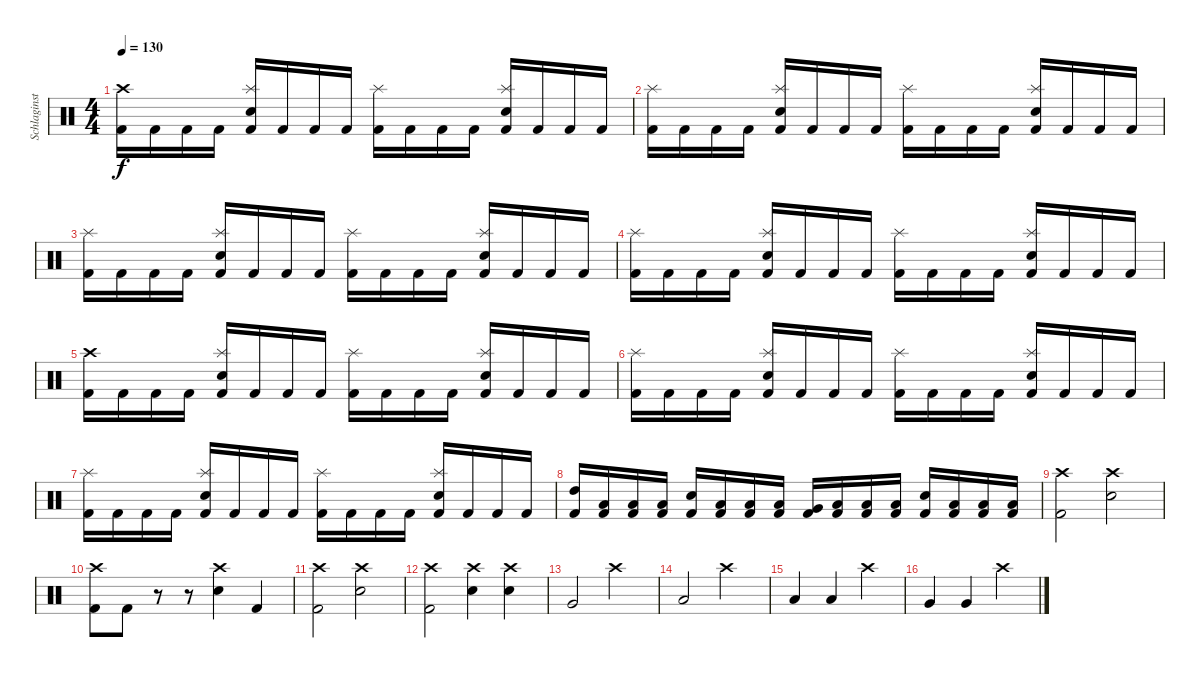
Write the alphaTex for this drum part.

\track ("Schlaginstrumente - Auswahl" "Schlaginst") {instrument percussion}
\staff {score}
\articulation defaults
\ts (4 4)
\tempo 130
\clef neutral
\ks c
("Crash high (hit)" "Kick (hit) 2").16{dy f} "Kick (hit) 2".16 "Kick (hit) 2".16 "Kick (hit) 2".16 ("Splash (hit)" "Snare (hit) 2" "Kick (hit) 2").16 "Kick (hit) 2".16 "Kick (hit) 2".16 "Kick (hit) 2".16 ("Splash (hit)" "Kick (hit) 2").16 "Kick (hit) 2".16 "Kick (hit) 2".16 "Kick (hit) 2".16 ("Splash (hit)" "Snare (hit) 2" "Kick (hit) 2").16 "Kick (hit) 2".16 "Kick (hit) 2".16 "Kick (hit) 2".16 |
("Splash (hit)" "Kick (hit) 2").16 "Kick (hit) 2".16 "Kick (hit) 2".16 "Kick (hit) 2".16 ("Splash (hit)" "Snare (hit) 2" "Kick (hit) 2").16 "Kick (hit) 2".16 "Kick (hit) 2".16 "Kick (hit) 2".16 ("Splash (hit)" "Kick (hit) 2").16 "Kick (hit) 2".16 "Kick (hit) 2".16 "Kick (hit) 2".16 ("Splash (hit)" "Snare (hit) 2" "Kick (hit) 2").16 "Kick (hit) 2".16 "Kick (hit) 2".16 "Kick (hit) 2".16 |
("Splash (hit)" "Kick (hit) 2").16 "Kick (hit) 2".16 "Kick (hit) 2".16 "Kick (hit) 2".16 ("Splash (hit)" "Snare (hit) 2" "Kick (hit) 2").16 "Kick (hit) 2".16 "Kick (hit) 2".16 "Kick (hit) 2".16 ("Splash (hit)" "Kick (hit) 2").16 "Kick (hit) 2".16 "Kick (hit) 2".16 "Kick (hit) 2".16 ("Splash (hit)" "Snare (hit) 2" "Kick (hit) 2").16 "Kick (hit) 2".16 "Kick (hit) 2".16 "Kick (hit) 2".16 |
("Splash (hit)" "Kick (hit) 2").16 "Kick (hit) 2".16 "Kick (hit) 2".16 "Kick (hit) 2".16 ("Splash (hit)" "Snare (hit) 2" "Kick (hit) 2").16 "Kick (hit) 2".16 "Kick (hit) 2".16 "Kick (hit) 2".16 ("Splash (hit)" "Kick (hit) 2").16 "Kick (hit) 2".16 "Kick (hit) 2".16 "Kick (hit) 2".16 ("Splash (hit)" "Snare (hit) 2" "Kick (hit) 2").16 "Kick (hit) 2".16 "Kick (hit) 2".16 "Kick (hit) 2".16 |
("Crash high (hit)" "Kick (hit) 2").16 "Kick (hit) 2".16 "Kick (hit) 2".16 "Kick (hit) 2".16 ("Splash (hit)" "Snare (hit) 2" "Kick (hit) 2").16 "Kick (hit) 2".16 "Kick (hit) 2".16 "Kick (hit) 2".16 ("Splash (hit)" "Kick (hit) 2").16 "Kick (hit) 2".16 "Kick (hit) 2".16 "Kick (hit) 2".16 ("Splash (hit)" "Snare (hit) 2" "Kick (hit) 2").16 "Kick (hit) 2".16 "Kick (hit) 2".16 "Kick (hit) 2".16 |
("Splash (hit)" "Kick (hit) 2").16 "Kick (hit) 2".16 "Kick (hit) 2".16 "Kick (hit) 2".16 ("Splash (hit)" "Snare (hit) 2" "Kick (hit) 2").16 "Kick (hit) 2".16 "Kick (hit) 2".16 "Kick (hit) 2".16 ("Splash (hit)" "Kick (hit) 2").16 "Kick (hit) 2".16 "Kick (hit) 2".16 "Kick (hit) 2".16 ("Splash (hit)" "Snare (hit) 2" "Kick (hit) 2").16 "Kick (hit) 2".16 "Kick (hit) 2".16 "Kick (hit) 2".16 |
("Splash (hit)" "Kick (hit) 2").16 "Kick (hit) 2".16 "Kick (hit) 2".16 "Kick (hit) 2".16 ("Splash (hit)" "Snare (hit) 2" "Kick (hit) 2").16 "Kick (hit) 2".16 "Kick (hit) 2".16 "Kick (hit) 2".16 ("Splash (hit)" "Kick (hit) 2").16 "Kick (hit) 2".16 "Kick (hit) 2".16 "Kick (hit) 2".16 ("Splash (hit)" "Snare (hit) 2" "Kick (hit) 2").16 "Kick (hit) 2".16 "Kick (hit) 2".16 "Kick (hit) 2".16 |
("High Tom (hit)" "Kick (hit) 2").16 ("Low Floor Tom (hit)" "Kick (hit) 2").16 ("Low Floor Tom (hit)" "Kick (hit) 2").16 ("Low Floor Tom (hit)" "Kick (hit) 2").16 ("Snare (hit) 2" "Kick (hit) 2").16 ("Low Floor Tom (hit)" "Kick (hit) 2").16 ("Low Floor Tom (hit)" "Kick (hit) 2").16 ("Low Floor Tom (hit)" "Kick (hit) 2").16 ("Very Low Tom (hit)" "Kick (hit) 2").16 ("Low Floor Tom (hit)" "Kick (hit) 2").16 ("Low Floor Tom (hit)" "Kick (hit) 2").16 ("Low Floor Tom (hit)" "Kick (hit) 2").16 ("Snare (hit) 2" "Kick (hit) 2").16 ("Low Floor Tom (hit)" "Kick (hit) 2").16 ("Low Floor Tom (hit)" "Kick (hit) 2").16 ("Low Floor Tom (hit)" "Kick (hit) 2").16 |
("Crash high (hit)" "Kick (hit) 2").2 ("Crash high (hit)" "Snare (hit) 2").2 |
("Crash high (hit)" "Kick (hit) 2").8 "Kick (hit) 2".8 r.8 r.8 ("Crash high (hit)" "Snare (hit) 2").4 "Kick (hit) 2".4 |
("Crash high (hit)" "Kick (hit) 2").2 ("Crash high (hit)" "Snare (hit) 2").2 |
("Crash high (hit)" "Kick (hit) 2").2 ("Crash high (hit)" "Snare (hit) 2").4 ("Crash high (hit)" "Snare (hit) 2").4 |
"Very Low Tom (hit)".2 "Crash high (hit)".2 |
"Low Floor Tom (hit)".2 "Crash high (hit)".2 |
"Low Floor Tom (hit)".4 "Low Floor Tom (hit)".4 "Crash high (hit)".4 |
"Very Low Tom (hit)".4 "Very Low Tom (hit)".4 "Crash high (hit)".4
